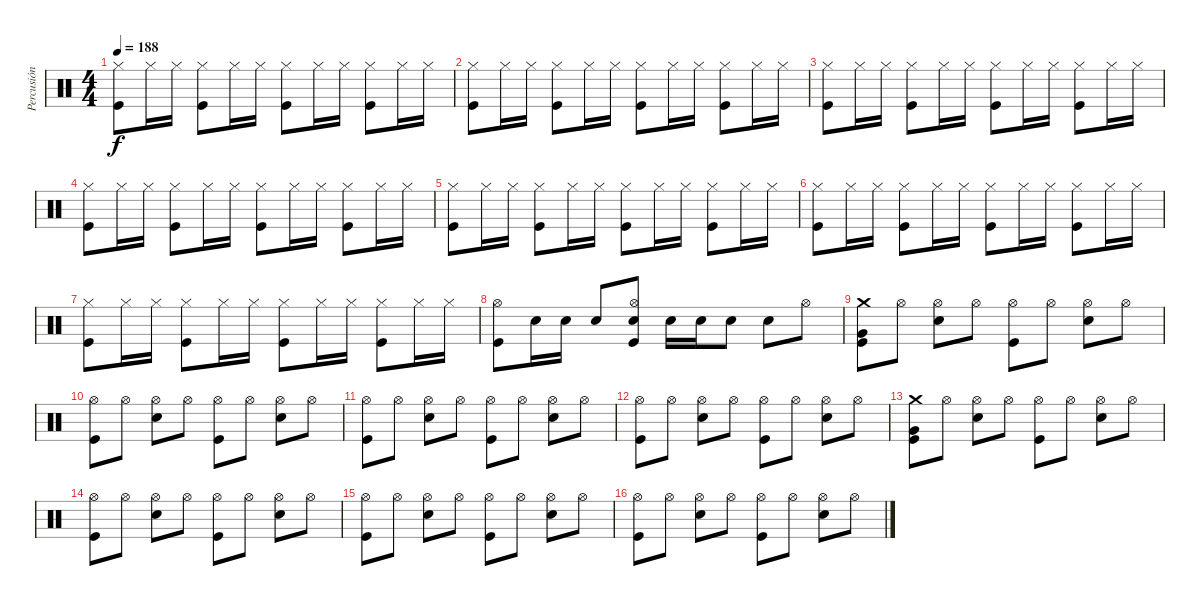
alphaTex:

\track ("Percusión" "Percusión") {instrument percussion}
\staff {score}
\articulation defaults
\ts (4 4)
\tempo 188
\clef neutral
\ks c
("Hi-Hat (closed)" "Kick (hit)").8{dy f} "Hi-Hat (closed)".16 "Hi-Hat (closed)".16 ("Hi-Hat (closed)" "Kick (hit)").8 "Hi-Hat (closed)".16 "Hi-Hat (closed)".16 ("Hi-Hat (closed)" "Kick (hit)").8 "Hi-Hat (closed)".16 "Hi-Hat (closed)".16 ("Hi-Hat (closed)" "Kick (hit)").8 "Hi-Hat (closed)".16 "Hi-Hat (closed)".16 |
("Hi-Hat (closed)" "Kick (hit)").8 "Hi-Hat (closed)".16 "Hi-Hat (closed)".16 ("Hi-Hat (closed)" "Kick (hit)").8 "Hi-Hat (closed)".16 "Hi-Hat (closed)".16 ("Hi-Hat (closed)" "Kick (hit)").8 "Hi-Hat (closed)".16 "Hi-Hat (closed)".16 ("Hi-Hat (closed)" "Kick (hit)").8 "Hi-Hat (closed)".16 "Hi-Hat (closed)".16 |
("Hi-Hat (closed)" "Kick (hit)").8 "Hi-Hat (closed)".16 "Hi-Hat (closed)".16 ("Hi-Hat (closed)" "Kick (hit)").8 "Hi-Hat (closed)".16 "Hi-Hat (closed)".16 ("Hi-Hat (closed)" "Kick (hit)").8 "Hi-Hat (closed)".16 "Hi-Hat (closed)".16 ("Hi-Hat (closed)" "Kick (hit)").8 "Hi-Hat (closed)".16 "Hi-Hat (closed)".16 |
("Hi-Hat (closed)" "Kick (hit)").8 "Hi-Hat (closed)".16 "Hi-Hat (closed)".16 ("Hi-Hat (closed)" "Kick (hit)").8 "Hi-Hat (closed)".16 "Hi-Hat (closed)".16 ("Hi-Hat (closed)" "Kick (hit)").8 "Hi-Hat (closed)".16 "Hi-Hat (closed)".16 ("Hi-Hat (closed)" "Kick (hit)").8 "Hi-Hat (closed)".16 "Hi-Hat (closed)".16 |
("Hi-Hat (closed)" "Kick (hit)").8 "Hi-Hat (closed)".16 "Hi-Hat (closed)".16 ("Hi-Hat (closed)" "Kick (hit)").8 "Hi-Hat (closed)".16 "Hi-Hat (closed)".16 ("Hi-Hat (closed)" "Kick (hit)").8 "Hi-Hat (closed)".16 "Hi-Hat (closed)".16 ("Hi-Hat (closed)" "Kick (hit)").8 "Hi-Hat (closed)".16 "Hi-Hat (closed)".16 |
("Hi-Hat (closed)" "Kick (hit)").8 "Hi-Hat (closed)".16 "Hi-Hat (closed)".16 ("Hi-Hat (closed)" "Kick (hit)").8 "Hi-Hat (closed)".16 "Hi-Hat (closed)".16 ("Hi-Hat (closed)" "Kick (hit)").8 "Hi-Hat (closed)".16 "Hi-Hat (closed)".16 ("Hi-Hat (closed)" "Kick (hit)").8 "Hi-Hat (closed)".16 "Hi-Hat (closed)".16 |
("Hi-Hat (closed)" "Kick (hit)").8 "Hi-Hat (closed)".16 "Hi-Hat (closed)".16 ("Hi-Hat (closed)" "Kick (hit)").8 "Hi-Hat (closed)".16 "Hi-Hat (closed)".16 ("Hi-Hat (closed)" "Kick (hit)").8 "Hi-Hat (closed)".16 "Hi-Hat (closed)".16 ("Hi-Hat (closed)" "Kick (hit)").8 "Hi-Hat (closed)".16 "Hi-Hat (closed)".16 |
("Hi-Hat (open)" "Kick (hit)").8 "Electric Snare (hit)".16 "Electric Snare (hit)".16 "Electric Snare (hit)".8 ("Hi-Hat (open)" "Electric Snare (hit)" "Kick (hit)").8 "Electric Snare (hit)".16 "Electric Snare (hit)".16 "Electric Snare (hit)".8 "Electric Snare (hit)".8 "Hi-Hat (open)".8 |
("Crash medium (hit)" "Very Low Tom (hit)" "Kick (hit)").8 "Hi-Hat (open)".8 ("Hi-Hat (open)" "Electric Snare (hit)").8 "Hi-Hat (open)".8 ("Hi-Hat (open)" "Kick (hit)").8 "Hi-Hat (open)".8 ("Hi-Hat (open)" "Electric Snare (hit)").8 "Hi-Hat (open)".8 |
("Hi-Hat (open)" "Kick (hit)").8 "Hi-Hat (open)".8 ("Hi-Hat (open)" "Electric Snare (hit)").8 "Hi-Hat (open)".8 ("Hi-Hat (open)" "Kick (hit)").8 "Hi-Hat (open)".8 ("Hi-Hat (open)" "Electric Snare (hit)").8 "Hi-Hat (open)".8 |
("Hi-Hat (open)" "Kick (hit)").8 "Hi-Hat (open)".8 ("Hi-Hat (open)" "Electric Snare (hit)").8 "Hi-Hat (open)".8 ("Hi-Hat (open)" "Kick (hit)").8 "Hi-Hat (open)".8 ("Hi-Hat (open)" "Electric Snare (hit)").8 "Hi-Hat (open)".8 |
("Hi-Hat (open)" "Kick (hit)").8 "Hi-Hat (open)".8 ("Hi-Hat (open)" "Electric Snare (hit)").8 "Hi-Hat (open)".8 ("Hi-Hat (open)" "Kick (hit)").8 "Hi-Hat (open)".8 ("Hi-Hat (open)" "Electric Snare (hit)").8 "Hi-Hat (open)".8 |
("Crash medium (hit)" "Very Low Tom (hit)" "Kick (hit)").8 "Hi-Hat (open)".8 ("Hi-Hat (open)" "Electric Snare (hit)").8 "Hi-Hat (open)".8 ("Hi-Hat (open)" "Kick (hit)").8 "Hi-Hat (open)".8 ("Hi-Hat (open)" "Electric Snare (hit)").8 "Hi-Hat (open)".8 |
("Hi-Hat (open)" "Kick (hit)").8 "Hi-Hat (open)".8 ("Hi-Hat (open)" "Electric Snare (hit)").8 "Hi-Hat (open)".8 ("Hi-Hat (open)" "Kick (hit)").8 "Hi-Hat (open)".8 ("Hi-Hat (open)" "Electric Snare (hit)").8 "Hi-Hat (open)".8 |
("Hi-Hat (open)" "Kick (hit)").8 "Hi-Hat (open)".8 ("Hi-Hat (open)" "Electric Snare (hit)").8 "Hi-Hat (open)".8 ("Hi-Hat (open)" "Kick (hit)").8 "Hi-Hat (open)".8 ("Hi-Hat (open)" "Electric Snare (hit)").8 "Hi-Hat (open)".8 |
("Hi-Hat (open)" "Kick (hit)").8 "Hi-Hat (open)".8 ("Hi-Hat (open)" "Electric Snare (hit)").8 "Hi-Hat (open)".8 ("Hi-Hat (open)" "Kick (hit)").8 "Hi-Hat (open)".8 ("Hi-Hat (open)" "Electric Snare (hit)").8 "Hi-Hat (open)".8
